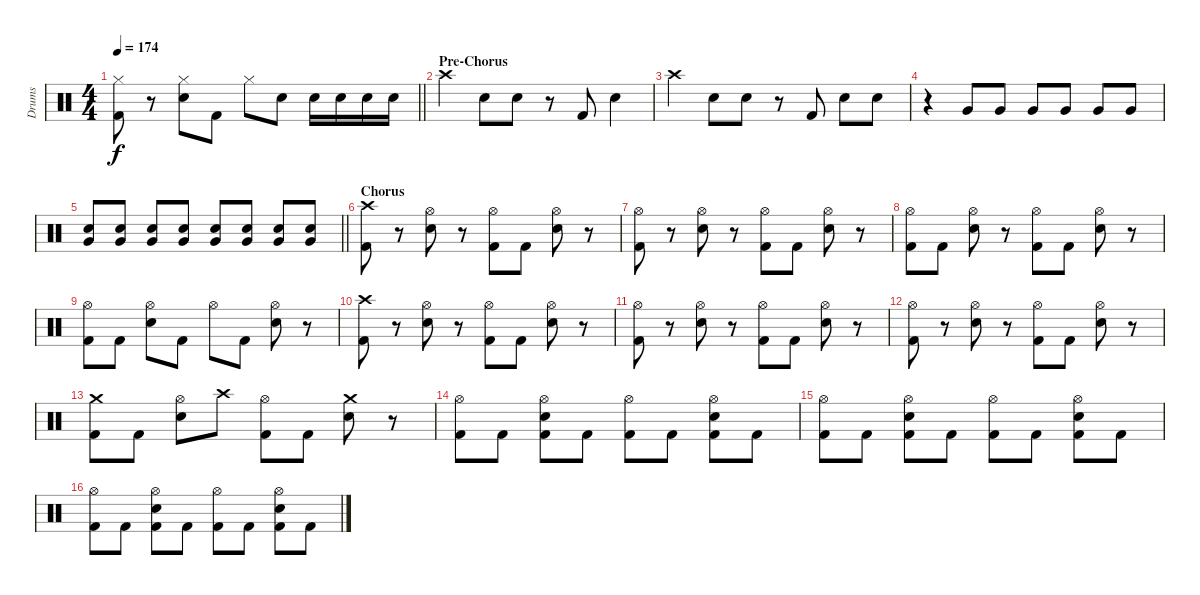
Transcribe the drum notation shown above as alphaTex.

\track ("Drums" "Drums") {instrument percussion}
\staff {score}
\articulation defaults
\ts (4 4)
\tempo 174
\clef neutral
\barLineRight lightlight
\ks c
("Hi-Hat (closed)" "Kick (hit) 2").8{dy f} r.8 ("Hi-Hat (closed)" "Electric Snare (hit)").8 "Kick (hit) 2".8 "Hi-Hat (closed)".8 "Electric Snare (hit)".8 "Electric Snare (hit)".16 "Electric Snare (hit)".16 "Electric Snare (hit)".16 "Electric Snare (hit)".16 |
\section ("" "Pre-Chorus")
"Crash high (hit)".4 "Electric Snare (hit)".8 "Electric Snare (hit)".8 r.8 "Kick (hit) 2".8 "Electric Snare (hit)".4 |
"Crash high (hit)".4 "Electric Snare (hit)".8 "Electric Snare (hit)".8 r.8 "Kick (hit) 2".8 "Electric Snare (hit)".8 "Electric Snare (hit)".8 |
r.4 "Very Low Tom (hit)".8 "Very Low Tom (hit)".8 "Very Low Tom (hit)".8 "Very Low Tom (hit)".8 "Very Low Tom (hit)".8 "Very Low Tom (hit)".8 |
\barLineRight lightlight
("Electric Snare (hit)" "Very Low Tom (hit)").8 ("Electric Snare (hit)" "Very Low Tom (hit)").8 ("Electric Snare (hit)" "Very Low Tom (hit)").8 ("Electric Snare (hit)" "Very Low Tom (hit)").8 ("Electric Snare (hit)" "Very Low Tom (hit)").8 ("Electric Snare (hit)" "Very Low Tom (hit)").8 ("Electric Snare (hit)" "Very Low Tom (hit)").8 ("Electric Snare (hit)" "Very Low Tom (hit)").8 |
\section ("" "Chorus")
("Crash high (hit)" "Kick (hit) 2").8 r.8 ("Hi-Hat (open)" "Electric Snare (hit)").8 r.8 ("Hi-Hat (open)" "Kick (hit) 2").8 "Kick (hit) 2".8 ("Hi-Hat (open)" "Electric Snare (hit)").8 r.8 |
("Hi-Hat (open)" "Kick (hit) 2").8 r.8 ("Hi-Hat (open)" "Electric Snare (hit)").8 r.8 ("Hi-Hat (open)" "Kick (hit) 2").8 "Kick (hit) 2".8 ("Hi-Hat (open)" "Electric Snare (hit)").8 r.8 |
("Hi-Hat (open)" "Kick (hit) 2").8 "Kick (hit) 2".8 ("Hi-Hat (open)" "Electric Snare (hit)").8 r.8 ("Hi-Hat (open)" "Kick (hit) 2").8 "Kick (hit) 2".8 ("Hi-Hat (open)" "Electric Snare (hit)").8 r.8 |
("Hi-Hat (open)" "Kick (hit) 2").8 "Kick (hit) 2".8 ("Hi-Hat (open)" "Electric Snare (hit)").8 "Kick (hit) 2".8 "Hi-Hat (open)".8 "Kick (hit) 2".8 ("Hi-Hat (open)" "Electric Snare (hit)").8 r.8 |
("Crash high (hit)" "Kick (hit) 2").8 r.8 ("Hi-Hat (open)" "Electric Snare (hit)").8 r.8 ("Hi-Hat (open)" "Kick (hit) 2").8 "Kick (hit) 2".8 ("Hi-Hat (open)" "Electric Snare (hit)").8 r.8 |
("Hi-Hat (open)" "Kick (hit) 2").8 r.8 ("Hi-Hat (open)" "Electric Snare (hit)").8 r.8 ("Hi-Hat (open)" "Kick (hit) 2").8 "Kick (hit) 2".8 ("Hi-Hat (open)" "Electric Snare (hit)").8 r.8 |
("Hi-Hat (open)" "Kick (hit) 2").8 r.8 ("Hi-Hat (open)" "Electric Snare (hit)").8 r.8 ("Hi-Hat (open)" "Kick (hit) 2").8 "Kick (hit) 2".8 ("Hi-Hat (open)" "Electric Snare (hit)").8 r.8 |
("Crash medium (hit)" "Kick (hit) 2").8 "Kick (hit) 2".8 ("Hi-Hat (open)" "Electric Snare (hit)").8 "Crash high (hit)".8 ("Hi-Hat (open)" "Kick (hit) 2").8 "Kick (hit) 2".8 ("Crash medium (hit)" "Electric Snare (hit)").8 r.8 |
("Hi-Hat (open)" "Kick (hit) 2").8 "Kick (hit) 2".8 ("Hi-Hat (open)" "Electric Snare (hit)" "Kick (hit) 2").8 "Kick (hit) 2".8 ("Hi-Hat (open)" "Kick (hit) 2").8 "Kick (hit) 2".8 ("Hi-Hat (open)" "Electric Snare (hit)" "Kick (hit) 2").8 "Kick (hit) 2".8 |
("Hi-Hat (open)" "Kick (hit) 2").8 "Kick (hit) 2".8 ("Hi-Hat (open)" "Electric Snare (hit)" "Kick (hit) 2").8 "Kick (hit) 2".8 ("Hi-Hat (open)" "Kick (hit) 2").8 "Kick (hit) 2".8 ("Hi-Hat (open)" "Electric Snare (hit)" "Kick (hit) 2").8 "Kick (hit) 2".8 |
("Hi-Hat (open)" "Kick (hit) 2").8 "Kick (hit) 2".8 ("Hi-Hat (open)" "Electric Snare (hit)" "Kick (hit) 2").8 "Kick (hit) 2".8 ("Hi-Hat (open)" "Kick (hit) 2").8 "Kick (hit) 2".8 ("Hi-Hat (open)" "Electric Snare (hit)" "Kick (hit) 2").8 "Kick (hit) 2".8
